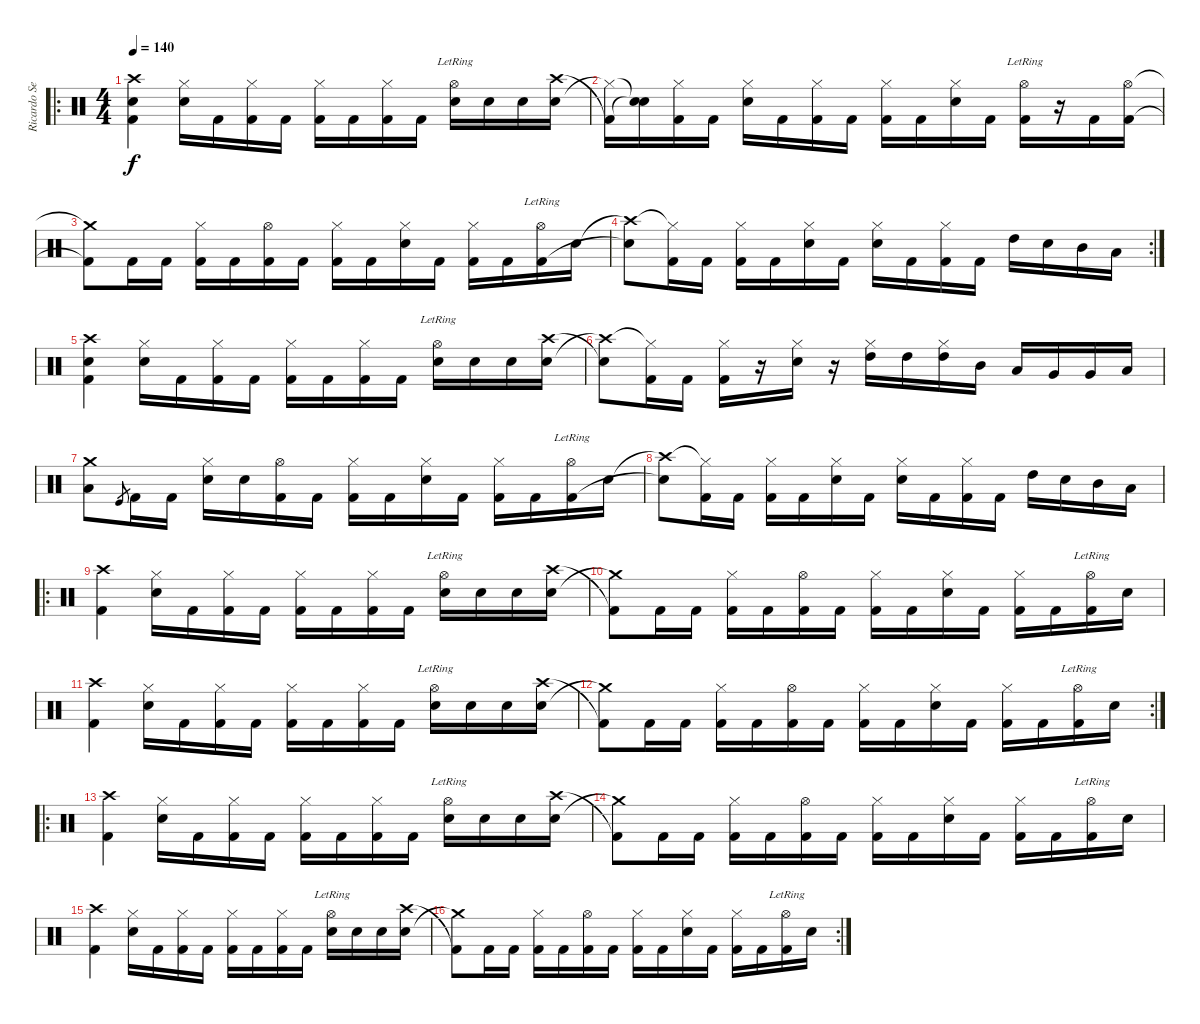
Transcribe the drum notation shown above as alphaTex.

\track ("Ricardo Severino" "Ricardo Se") {instrument percussion}
\staff {score}
\articulation defaults
\ro
\ts (4 4)
\tempo 140
\clef neutral
\ks c
("Crash high (hit)" "Kick (hit) 2" "Snare (hit) 2").4{dy f} ("Hi-Hat (closed)" "Snare (hit) 2").16 "Kick (hit) 2".16 ("Hi-Hat (closed)" "Kick (hit) 2").16 "Kick (hit) 2".16 ("Hi-Hat (closed)" "Kick (hit) 2").16 "Kick (hit) 2".16 ("Hi-Hat (closed)" "Kick (hit) 2").16 "Kick (hit) 2".16 ("Hi-Hat (open)"{lr} "Snare (hit) 2").16 "Snare (hit) 2".16 "Snare (hit) 2".16 ("Snare (hit) 2" "Crash high (hit)").16 |
("Hi-Hat (closed)"{t} "Kick (hit) 2"{t}).16 ("Snare (hit)"{t} "Snare (hit)"{t}).16 ("Hi-Hat (closed)" "Kick (hit) 2").16 "Kick (hit) 2".16 ("Hi-Hat (closed)" "Snare (hit) 2").16 "Kick (hit) 2".16 ("Hi-Hat (closed)" "Kick (hit) 2").16 "Kick (hit) 2".16 ("Hi-Hat (closed)" "Kick (hit) 2").16 "Kick (hit) 2".16 ("Hi-Hat (closed)" "Snare (hit) 2").16 "Kick (hit) 2".16 ("Hi-Hat (open)"{lr} "Kick (hit) 2").16 r.16 "Kick (hit) 2".16 ("Hi-Hat (open)" "Kick (hit) 2").16 |
("Crash medium (hit)"{t} "Kick (hit) 2"{t}).8 "Kick (hit) 2".16 "Kick (hit) 2".16 ("Hi-Hat (closed)" "Kick (hit) 2").16 "Kick (hit) 2".16 ("Hi-Hat (open)" "Kick (hit) 2").16 "Kick (hit) 2".16 ("Hi-Hat (closed)" "Kick (hit) 2").16 "Kick (hit) 2".16 ("Hi-Hat (closed)" "Snare (hit) 2").16 "Kick (hit) 2".16 ("Hi-Hat (closed)" "Kick (hit) 2").16 "Kick (hit) 2".16 ("Hi-Hat (open)"{lr} "Kick (hit) 2").16 "Snare (hit) 2".16 |
\rc 2
("Crash high (hit)"{t} "Snare (hit) 2"{t}).8 ("Hi-Hat (closed)"{t} "Kick (hit) 2").16 "Kick (hit) 2".16 ("Hi-Hat (closed)" "Kick (hit) 2").16 "Kick (hit) 2".16 ("Hi-Hat (closed)" "Snare (hit) 2").16 "Kick (hit) 2".16 ("Hi-Hat (closed)" "Snare (hit) 2").16 "Kick (hit) 2".16 ("Hi-Hat (closed)" "Kick (hit) 2").16 "Kick (hit) 2".16 "High Tom (hit)".16 "Snare (hit) 2".16 "Mid Tom (hit)".16 "Low Tom (hit)".16 |
("Crash high (hit)" "Kick (hit) 2" "Snare (hit) 2").4 ("Hi-Hat (closed)" "Snare (hit) 2").16 "Kick (hit) 2".16 ("Hi-Hat (closed)" "Kick (hit) 2").16 "Kick (hit) 2".16 ("Hi-Hat (closed)" "Kick (hit) 2").16 "Kick (hit) 2".16 ("Hi-Hat (closed)" "Kick (hit) 2").16 "Kick (hit) 2".16 ("Hi-Hat (open)"{lr} "Snare (hit) 2").16 "Snare (hit) 2".16 "Snare (hit) 2".16 ("Snare (hit) 2" "Crash high (hit)").16 |
("Crash high (hit)"{t} "Snare (hit) 2"{t}).8 ("Hi-Hat (closed)"{t} "Kick (hit) 2").16 "Kick (hit) 2".16 ("Hi-Hat (closed)" "Kick (hit) 2").16 r.16 ("Hi-Hat (closed)" "Snare (hit) 2").16 r.16 ("Hi-Hat (closed)" "High Tom (hit)").16 "High Tom (hit)".16 ("Hi-Hat (closed)" "High Tom (hit)").16 "Mid Tom (hit)".16 "Low Tom (hit)".16 "Very Low Tom (hit)".16 "Very Low Tom (hit)".16 "Low Floor Tom (hit)".16 |
("Crash medium (hit)" "Low Floor Tom (hit)").8 "Kick (hit)".8{gr} "Kick (hit) 2".16 "Kick (hit) 2".16 ("Hi-Hat (closed)" "Snare (hit) 2").16 "Snare (hit) 2".16 ("Hi-Hat (open)" "Kick (hit) 2").16 "Kick (hit) 2".16 ("Hi-Hat (closed)" "Kick (hit) 2").16 "Kick (hit) 2".16 ("Hi-Hat (closed)" "Snare (hit) 2").16 "Kick (hit) 2".16 ("Hi-Hat (closed)" "Kick (hit) 2").16 "Kick (hit) 2".16 ("Hi-Hat (open)"{lr} "Kick (hit) 2").16 "Snare (hit) 2".16 |
("Crash high (hit)"{t} "Snare (hit) 2"{t}).8 ("Hi-Hat (closed)"{t} "Kick (hit) 2").16 "Kick (hit) 2".16 ("Hi-Hat (closed)" "Kick (hit) 2").16 "Kick (hit) 2".16 ("Hi-Hat (closed)" "Snare (hit) 2").16 "Kick (hit) 2".16 ("Hi-Hat (closed)" "Snare (hit) 2").16 "Kick (hit) 2".16 ("Hi-Hat (closed)" "Kick (hit) 2").16 "Kick (hit) 2".16 "High Tom (hit)".16 "Snare (hit) 2".16 "Mid Tom (hit)".16 "Low Tom (hit)".16 |
\ro
("Crash high (hit)" "Kick (hit) 2").4 ("Hi-Hat (closed)" "Snare (hit) 2").16 "Kick (hit) 2".16 ("Hi-Hat (closed)" "Kick (hit) 2").16 "Kick (hit) 2".16 ("Hi-Hat (closed)" "Kick (hit) 2").16 "Kick (hit) 2".16 ("Hi-Hat (closed)" "Kick (hit) 2").16 "Kick (hit) 2".16 ("Hi-Hat (open)"{lr} "Snare (hit) 2").16 "Snare (hit) 2".16 "Snare (hit) 2".16 ("Snare (hit) 2" "Crash high (hit)").16 |
("Crash medium (hit)"{t} "Kick (hit) 2"{t}).8 "Kick (hit) 2".16 "Kick (hit) 2".16 ("Hi-Hat (closed)" "Kick (hit) 2").16 "Kick (hit) 2".16 ("Hi-Hat (open)" "Kick (hit) 2").16 "Kick (hit) 2".16 ("Hi-Hat (closed)" "Kick (hit) 2").16 "Kick (hit) 2".16 ("Hi-Hat (closed)" "Snare (hit) 2").16 "Kick (hit) 2".16 ("Hi-Hat (closed)" "Kick (hit) 2").16 "Kick (hit) 2".16 ("Hi-Hat (open)"{lr} "Kick (hit) 2").16 "Snare (hit) 2".16 |
("Crash high (hit)" "Kick (hit) 2").4 ("Hi-Hat (closed)" "Snare (hit) 2").16 "Kick (hit) 2".16 ("Hi-Hat (closed)" "Kick (hit) 2").16 "Kick (hit) 2".16 ("Hi-Hat (closed)" "Kick (hit) 2").16 "Kick (hit) 2".16 ("Hi-Hat (closed)" "Kick (hit) 2").16 "Kick (hit) 2".16 ("Hi-Hat (open)"{lr} "Snare (hit) 2").16 "Snare (hit) 2".16 "Snare (hit) 2".16 ("Snare (hit) 2" "Crash high (hit)").16 |
\rc 2
("Crash medium (hit)"{t} "Kick (hit) 2"{t}).8 "Kick (hit) 2".16 "Kick (hit) 2".16 ("Hi-Hat (closed)" "Kick (hit) 2").16 "Kick (hit) 2".16 ("Hi-Hat (open)" "Kick (hit) 2").16 "Kick (hit) 2".16 ("Hi-Hat (closed)" "Kick (hit) 2").16 "Kick (hit) 2".16 ("Hi-Hat (closed)" "Snare (hit) 2").16 "Kick (hit) 2".16 ("Hi-Hat (closed)" "Kick (hit) 2").16 "Kick (hit) 2".16 ("Hi-Hat (open)"{lr} "Kick (hit) 2").16 "Snare (hit) 2".16 |
\ro
("Crash high (hit)" "Kick (hit) 2").4 ("Hi-Hat (closed)" "Snare (hit) 2").16 "Kick (hit) 2".16 ("Hi-Hat (closed)" "Kick (hit) 2").16 "Kick (hit) 2".16 ("Hi-Hat (closed)" "Kick (hit) 2").16 "Kick (hit) 2".16 ("Hi-Hat (closed)" "Kick (hit) 2").16 "Kick (hit) 2".16 ("Hi-Hat (open)"{lr} "Snare (hit) 2").16 "Snare (hit) 2".16 "Snare (hit) 2".16 ("Snare (hit) 2" "Crash high (hit)").16 |
("Crash medium (hit)"{t} "Kick (hit) 2"{t}).8 "Kick (hit) 2".16 "Kick (hit) 2".16 ("Hi-Hat (closed)" "Kick (hit) 2").16 "Kick (hit) 2".16 ("Hi-Hat (open)" "Kick (hit) 2").16 "Kick (hit) 2".16 ("Hi-Hat (closed)" "Kick (hit) 2").16 "Kick (hit) 2".16 ("Hi-Hat (closed)" "Snare (hit) 2").16 "Kick (hit) 2".16 ("Hi-Hat (closed)" "Kick (hit) 2").16 "Kick (hit) 2".16 ("Hi-Hat (open)"{lr} "Kick (hit) 2").16 "Snare (hit) 2".16 |
("Crash high (hit)" "Kick (hit) 2").4 ("Hi-Hat (closed)" "Snare (hit) 2").16 "Kick (hit) 2".16 ("Hi-Hat (closed)" "Kick (hit) 2").16 "Kick (hit) 2".16 ("Hi-Hat (closed)" "Kick (hit) 2").16 "Kick (hit) 2".16 ("Hi-Hat (closed)" "Kick (hit) 2").16 "Kick (hit) 2".16 ("Hi-Hat (open)"{lr} "Snare (hit) 2").16 "Snare (hit) 2".16 "Snare (hit) 2".16 ("Snare (hit) 2" "Crash high (hit)").16 |
\rc 2
("Crash medium (hit)"{t} "Kick (hit) 2"{t}).8 "Kick (hit) 2".16 "Kick (hit) 2".16 ("Hi-Hat (closed)" "Kick (hit) 2").16 "Kick (hit) 2".16 ("Hi-Hat (open)" "Kick (hit) 2").16 "Kick (hit) 2".16 ("Hi-Hat (closed)" "Kick (hit) 2").16 "Kick (hit) 2".16 ("Hi-Hat (closed)" "Snare (hit) 2").16 "Kick (hit) 2".16 ("Hi-Hat (closed)" "Kick (hit) 2").16 "Kick (hit) 2".16 ("Hi-Hat (open)"{lr} "Kick (hit) 2").16 "Snare (hit) 2".16
